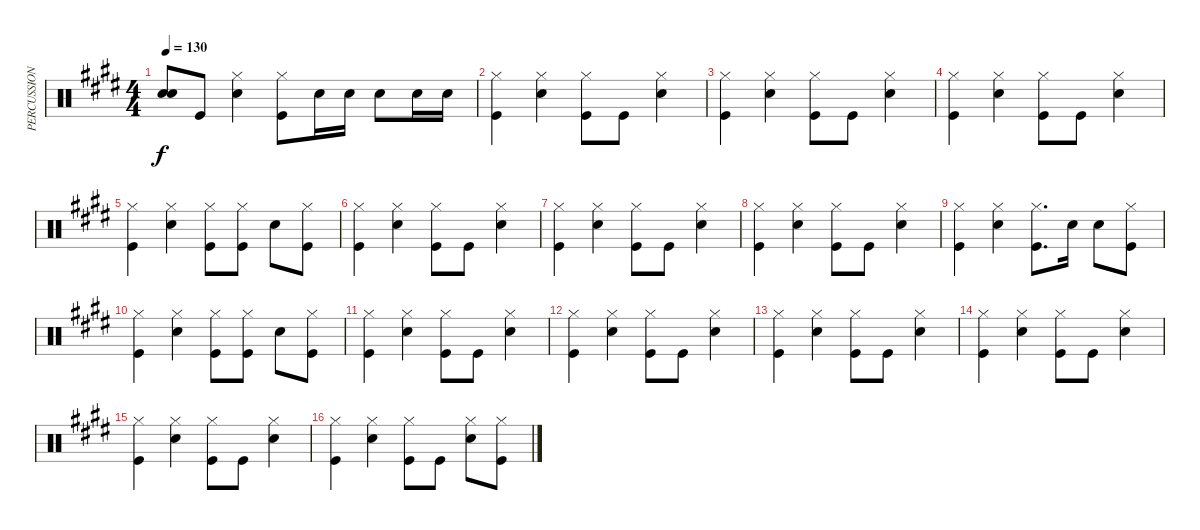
\track ("PERCUSSION" "PERCUSSION") {instrument percussion}
\staff {score}
\articulation defaults
\ts (4 4)
\tempo 130
\clef neutral
\ks e
("Snare (hit)"{t} "Snare (hit)"{t}).8{dy f} "Kick (hit)".8 ("Hi-Hat (closed)" "Snare (hit) 2").4 ("Hi-Hat (closed)" "Kick (hit)").8 "Snare (hit) 2".16 "Snare (hit) 2".16 "Snare (hit) 2".8 "Snare (hit) 2".16 "Snare (hit) 2".16 |
("Hi-Hat (closed)" "Kick (hit)").4 ("Hi-Hat (closed)" "Snare (hit) 2").4 ("Hi-Hat (closed)" "Kick (hit)").8 "Kick (hit)".8 ("Hi-Hat (closed)" "Snare (hit) 2").4 |
("Hi-Hat (closed)" "Kick (hit)").4 ("Hi-Hat (closed)" "Snare (hit) 2").4 ("Hi-Hat (closed)" "Kick (hit)").8 "Kick (hit)".8 ("Hi-Hat (closed)" "Snare (hit) 2").4 |
("Hi-Hat (closed)" "Kick (hit)").4 ("Hi-Hat (closed)" "Snare (hit) 2").4 ("Hi-Hat (closed)" "Kick (hit)").8 "Kick (hit)".8 ("Hi-Hat (closed)" "Snare (hit) 2").4 |
("Hi-Hat (closed)" "Kick (hit)").4 ("Hi-Hat (closed)" "Snare (hit) 2").4 ("Hi-Hat (closed)" "Kick (hit)").8 ("Hi-Hat (closed)" "Kick (hit)").8 "Snare (hit) 2".8 ("Hi-Hat (closed)" "Kick (hit)").8 |
("Hi-Hat (closed)" "Kick (hit)").4 ("Hi-Hat (closed)" "Snare (hit) 2").4 ("Hi-Hat (closed)" "Kick (hit)").8 "Kick (hit)".8 ("Hi-Hat (closed)" "Snare (hit) 2").4 |
("Hi-Hat (closed)" "Kick (hit)").4 ("Hi-Hat (closed)" "Snare (hit) 2").4 ("Hi-Hat (closed)" "Kick (hit)").8 "Kick (hit)".8 ("Hi-Hat (closed)" "Snare (hit) 2").4 |
("Hi-Hat (closed)" "Kick (hit)").4 ("Hi-Hat (closed)" "Snare (hit) 2").4 ("Hi-Hat (closed)" "Kick (hit)").8 "Kick (hit)".8 ("Hi-Hat (closed)" "Snare (hit) 2").4 |
("Hi-Hat (closed)" "Kick (hit)").4 ("Hi-Hat (closed)" "Snare (hit) 2").4 ("Hi-Hat (closed)" "Kick (hit)").8{d} "Snare (hit) 2".16 "Snare (hit) 2".8 ("Hi-Hat (closed)" "Kick (hit)").8 |
("Hi-Hat (closed)" "Kick (hit)").4 ("Hi-Hat (closed)" "Snare (hit) 2").4 ("Hi-Hat (closed)" "Kick (hit)").8 ("Hi-Hat (closed)" "Kick (hit)").8 "Snare (hit) 2".8 ("Hi-Hat (closed)" "Kick (hit)").8 |
("Hi-Hat (closed)" "Kick (hit)").4 ("Hi-Hat (closed)" "Snare (hit) 2").4 ("Hi-Hat (closed)" "Kick (hit)").8 "Kick (hit)".8 ("Hi-Hat (closed)" "Snare (hit) 2").4 |
("Hi-Hat (closed)" "Kick (hit)").4 ("Hi-Hat (closed)" "Snare (hit) 2").4 ("Hi-Hat (closed)" "Kick (hit)").8 "Kick (hit)".8 ("Hi-Hat (closed)" "Snare (hit) 2").4 |
("Hi-Hat (closed)" "Kick (hit)").4 ("Hi-Hat (closed)" "Snare (hit) 2").4 ("Hi-Hat (closed)" "Kick (hit)").8 "Kick (hit)".8 ("Hi-Hat (closed)" "Snare (hit) 2").4 |
("Hi-Hat (closed)" "Kick (hit)").4 ("Hi-Hat (closed)" "Snare (hit) 2").4 ("Hi-Hat (closed)" "Kick (hit)").8 "Kick (hit)".8 ("Hi-Hat (closed)" "Snare (hit) 2").4 |
("Hi-Hat (closed)" "Kick (hit)").4 ("Hi-Hat (closed)" "Snare (hit) 2").4 ("Hi-Hat (closed)" "Kick (hit)").8 "Kick (hit)".8 ("Hi-Hat (closed)" "Snare (hit) 2").4 |
("Hi-Hat (closed)" "Kick (hit)").4 ("Hi-Hat (closed)" "Snare (hit) 2").4 ("Hi-Hat (closed)" "Kick (hit)").8 "Kick (hit)".8 ("Hi-Hat (closed)" "Snare (hit) 2").8 ("Hi-Hat (closed)" "Kick (hit)").8
